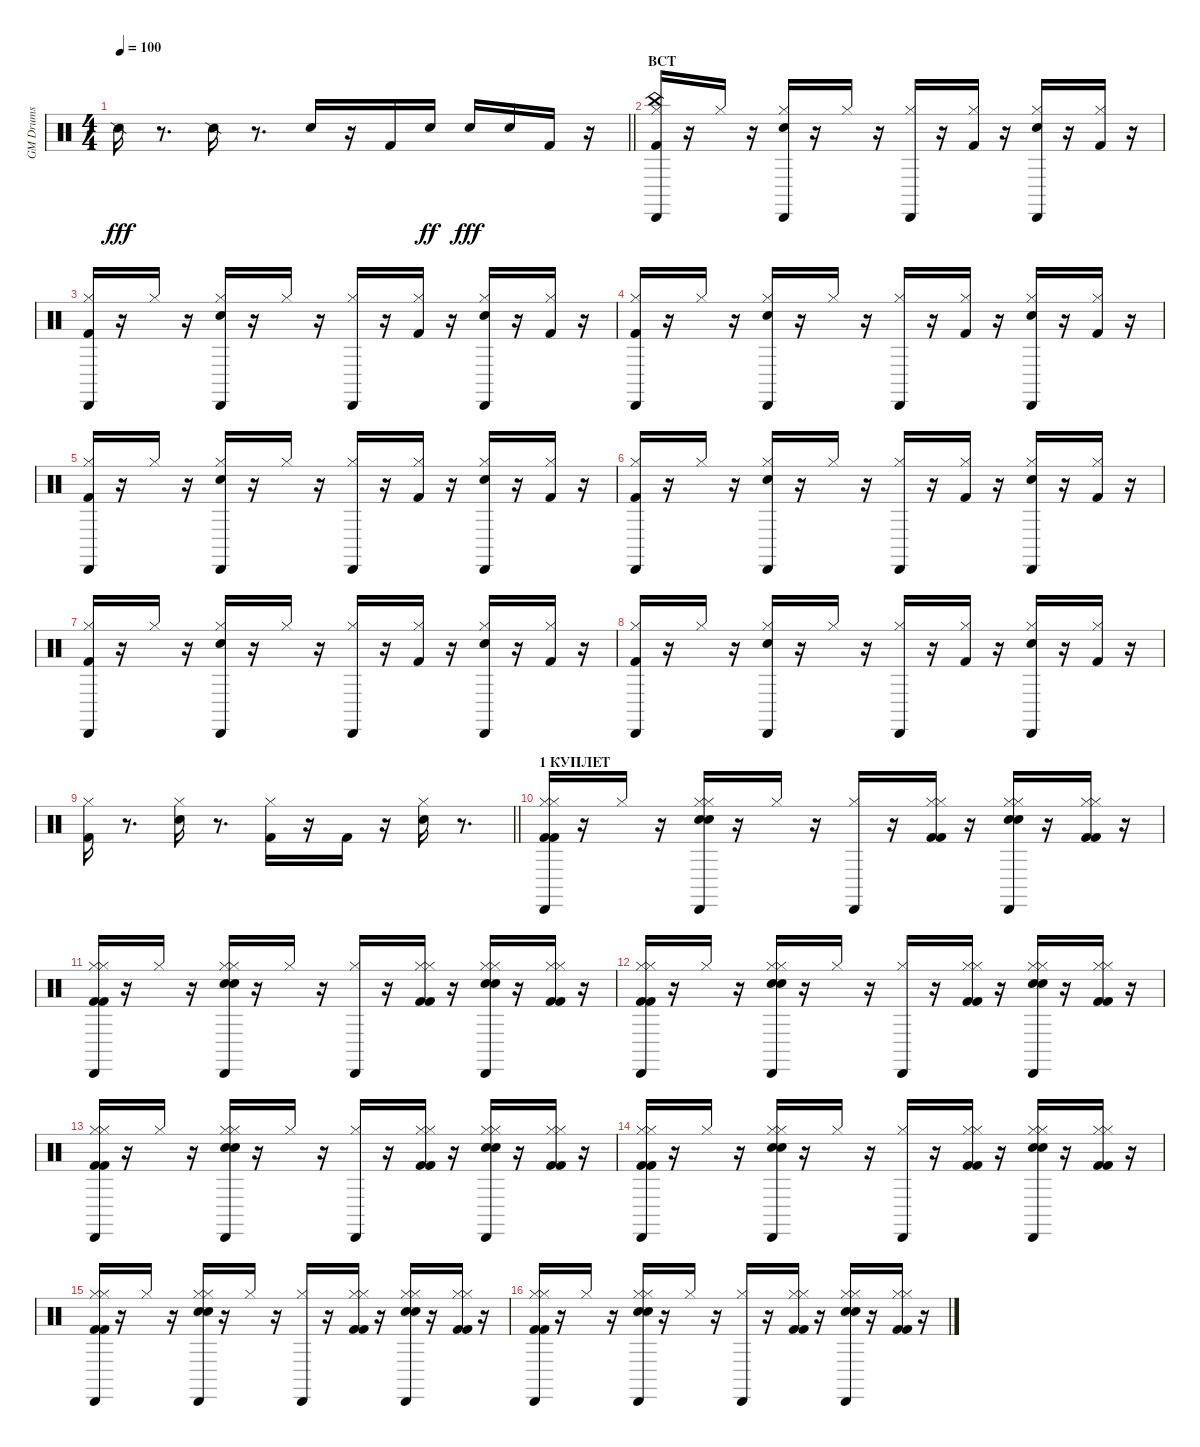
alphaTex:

\track ("GM Drums" "GM Drums") {instrument percussion}
\staff {score}
\articulation defaults
\ts (4 4)
\tempo 100
\clef neutral
\barLineRight lightlight
\ks c "Snare (side stick) 2".16{dy fff}
r.8{d} "Snare (side stick) 2".16 r.8{d} "Snare (hit) 2".16 r.16 "Kick (hit) 2".16 "Snare (hit) 2".16{dy ff} "Snare (hit) 2".16{dy fff} "Snare (hit) 2".16 "Kick (hit) 2".16 r.16 |
\section ("" "ВСТ")
("Kick (hit) 2" "Hi-Hat (closed)" "China (hit)" "Cabasa (hit)").16 r.16 "Hi-Hat (closed)".16 r.16 ("Snare (hit) 2" "Hi-Hat (closed)" "Cabasa (hit)").16 r.16 "Hi-Hat (closed)".16 r.16 ("Hi-Hat (closed)" "Cabasa (hit)").16 r.16 ("Kick (hit) 2" "Hi-Hat (closed)").16 r.16 ("Snare (hit) 2" "Hi-Hat (closed)" "Cabasa (hit)").16 r.16 ("Kick (hit) 2" "Hi-Hat (closed)").16 r.16 |
("Kick (hit) 2" "Hi-Hat (closed)" "Cabasa (hit)").16 r.16 "Hi-Hat (closed)".16 r.16 ("Snare (hit) 2" "Hi-Hat (closed)" "Cabasa (hit)").16 r.16 "Hi-Hat (closed)".16 r.16 ("Hi-Hat (closed)" "Cabasa (hit)").16 r.16 ("Kick (hit) 2" "Hi-Hat (closed)").16 r.16 ("Snare (hit) 2" "Hi-Hat (closed)" "Cabasa (hit)").16 r.16 ("Kick (hit) 2" "Hi-Hat (closed)").16 r.16 |
("Kick (hit) 2" "Hi-Hat (closed)" "Cabasa (hit)").16 r.16 "Hi-Hat (closed)".16 r.16 ("Snare (hit) 2" "Hi-Hat (closed)" "Cabasa (hit)").16 r.16 "Hi-Hat (closed)".16 r.16 ("Hi-Hat (closed)" "Cabasa (hit)").16 r.16 ("Kick (hit) 2" "Hi-Hat (closed)").16 r.16 ("Snare (hit) 2" "Hi-Hat (closed)" "Cabasa (hit)").16 r.16 ("Kick (hit) 2" "Hi-Hat (closed)").16 r.16 |
("Kick (hit) 2" "Hi-Hat (closed)" "Cabasa (hit)").16 r.16 "Hi-Hat (closed)".16 r.16 ("Snare (hit) 2" "Hi-Hat (closed)" "Cabasa (hit)").16 r.16 "Hi-Hat (closed)".16 r.16 ("Hi-Hat (closed)" "Cabasa (hit)").16 r.16 ("Kick (hit) 2" "Hi-Hat (closed)").16 r.16 ("Snare (hit) 2" "Hi-Hat (closed)" "Cabasa (hit)").16 r.16 ("Kick (hit) 2" "Hi-Hat (closed)").16 r.16 |
("Kick (hit) 2" "Hi-Hat (closed)" "Cabasa (hit)").16 r.16 "Hi-Hat (closed)".16 r.16 ("Snare (hit) 2" "Hi-Hat (closed)" "Cabasa (hit)").16 r.16 "Hi-Hat (closed)".16 r.16 ("Hi-Hat (closed)" "Cabasa (hit)").16 r.16 ("Kick (hit) 2" "Hi-Hat (closed)").16 r.16 ("Snare (hit) 2" "Hi-Hat (closed)" "Cabasa (hit)").16 r.16 ("Kick (hit) 2" "Hi-Hat (closed)").16 r.16 |
("Kick (hit) 2" "Hi-Hat (closed)" "Cabasa (hit)").16 r.16 "Hi-Hat (closed)".16 r.16 ("Snare (hit) 2" "Hi-Hat (closed)" "Cabasa (hit)").16 r.16 "Hi-Hat (closed)".16 r.16 ("Hi-Hat (closed)" "Cabasa (hit)").16 r.16 ("Kick (hit) 2" "Hi-Hat (closed)").16 r.16 ("Snare (hit) 2" "Hi-Hat (closed)" "Cabasa (hit)").16 r.16 ("Kick (hit) 2" "Hi-Hat (closed)").16 r.16 |
("Kick (hit) 2" "Hi-Hat (closed)" "Cabasa (hit)").16 r.16 "Hi-Hat (closed)".16 r.16 ("Snare (hit) 2" "Hi-Hat (closed)" "Cabasa (hit)").16 r.16 "Hi-Hat (closed)".16 r.16 ("Hi-Hat (closed)" "Cabasa (hit)").16 r.16 ("Kick (hit) 2" "Hi-Hat (closed)").16 r.16 ("Snare (hit) 2" "Hi-Hat (closed)" "Cabasa (hit)").16 r.16 ("Kick (hit) 2" "Hi-Hat (closed)").16 r.16 |
\barLineRight lightlight
("Kick (hit) 2" "Hi-Hat (closed)").16 r.8{d} ("Snare (hit) 2" "Hi-Hat (closed)").16 r.8{d} ("Kick (hit) 2" "Hi-Hat (closed)").16 r.16 "Kick (hit) 2".16 r.16 ("Snare (hit) 2" "Hi-Hat (closed)").16 r.8{d} |
\section ("" "1 КУПЛЕТ")
("Kick (hit) 2" "Kick (hit) 2" "Hi-Hat (closed)" "Hi-Hat (closed)" "Cabasa (hit)").16 r.16 "Hi-Hat (closed)".16 r.16 ("Snare (hit) 2" "Snare (hit) 2" "Hi-Hat (closed)" "Hi-Hat (closed)" "Cabasa (hit)").16 r.16 "Hi-Hat (closed)".16 r.16 ("Hi-Hat (closed)" "Cabasa (hit)").16 r.16 ("Kick (hit) 2" "Kick (hit) 2" "Hi-Hat (closed)" "Hi-Hat (closed)").16 r.16 ("Snare (hit) 2" "Snare (hit) 2" "Hi-Hat (closed)" "Hi-Hat (closed)" "Cabasa (hit)").16 r.16 ("Kick (hit) 2" "Kick (hit) 2" "Hi-Hat (closed)" "Hi-Hat (closed)").16 r.16 |
("Kick (hit) 2" "Kick (hit) 2" "Hi-Hat (closed)" "Hi-Hat (closed)" "Cabasa (hit)").16 r.16 "Hi-Hat (closed)".16 r.16 ("Snare (hit) 2" "Snare (hit) 2" "Hi-Hat (closed)" "Hi-Hat (closed)" "Cabasa (hit)").16 r.16 "Hi-Hat (closed)".16 r.16 ("Hi-Hat (closed)" "Cabasa (hit)").16 r.16 ("Kick (hit) 2" "Kick (hit) 2" "Hi-Hat (closed)" "Hi-Hat (closed)").16 r.16 ("Snare (hit) 2" "Snare (hit) 2" "Hi-Hat (closed)" "Hi-Hat (closed)" "Cabasa (hit)").16 r.16 ("Kick (hit) 2" "Kick (hit) 2" "Hi-Hat (closed)" "Hi-Hat (closed)").16 r.16 |
("Kick (hit) 2" "Kick (hit) 2" "Hi-Hat (closed)" "Hi-Hat (closed)" "Cabasa (hit)").16 r.16 "Hi-Hat (closed)".16 r.16 ("Snare (hit) 2" "Snare (hit) 2" "Hi-Hat (closed)" "Hi-Hat (closed)" "Cabasa (hit)").16 r.16 "Hi-Hat (closed)".16 r.16 ("Hi-Hat (closed)" "Cabasa (hit)").16 r.16 ("Kick (hit) 2" "Kick (hit) 2" "Hi-Hat (closed)" "Hi-Hat (closed)").16 r.16 ("Snare (hit) 2" "Snare (hit) 2" "Hi-Hat (closed)" "Hi-Hat (closed)" "Cabasa (hit)").16 r.16 ("Kick (hit) 2" "Kick (hit) 2" "Hi-Hat (closed)" "Hi-Hat (closed)").16 r.16 |
("Kick (hit) 2" "Kick (hit) 2" "Hi-Hat (closed)" "Hi-Hat (closed)" "Cabasa (hit)").16 r.16 "Hi-Hat (closed)".16 r.16 ("Snare (hit) 2" "Snare (hit) 2" "Hi-Hat (closed)" "Hi-Hat (closed)" "Cabasa (hit)").16 r.16 "Hi-Hat (closed)".16 r.16 ("Hi-Hat (closed)" "Cabasa (hit)").16 r.16 ("Kick (hit) 2" "Kick (hit) 2" "Hi-Hat (closed)" "Hi-Hat (closed)").16 r.16 ("Snare (hit) 2" "Snare (hit) 2" "Hi-Hat (closed)" "Hi-Hat (closed)" "Cabasa (hit)").16 r.16 ("Kick (hit) 2" "Kick (hit) 2" "Hi-Hat (closed)" "Hi-Hat (closed)").16 r.16 |
("Kick (hit) 2" "Kick (hit) 2" "Hi-Hat (closed)" "Hi-Hat (closed)" "Cabasa (hit)").16 r.16 "Hi-Hat (closed)".16 r.16 ("Snare (hit) 2" "Snare (hit) 2" "Hi-Hat (closed)" "Hi-Hat (closed)" "Cabasa (hit)").16 r.16 "Hi-Hat (closed)".16 r.16 ("Hi-Hat (closed)" "Cabasa (hit)").16 r.16 ("Kick (hit) 2" "Kick (hit) 2" "Hi-Hat (closed)" "Hi-Hat (closed)").16 r.16 ("Snare (hit) 2" "Snare (hit) 2" "Hi-Hat (closed)" "Hi-Hat (closed)" "Cabasa (hit)").16 r.16 ("Kick (hit) 2" "Kick (hit) 2" "Hi-Hat (closed)" "Hi-Hat (closed)").16 r.16 |
("Kick (hit) 2" "Kick (hit) 2" "Hi-Hat (closed)" "Hi-Hat (closed)" "Cabasa (hit)").16 r.16 "Hi-Hat (closed)".16 r.16 ("Snare (hit) 2" "Snare (hit) 2" "Hi-Hat (closed)" "Hi-Hat (closed)" "Cabasa (hit)").16 r.16 "Hi-Hat (closed)".16 r.16 ("Hi-Hat (closed)" "Cabasa (hit)").16 r.16 ("Kick (hit) 2" "Kick (hit) 2" "Hi-Hat (closed)" "Hi-Hat (closed)").16 r.16 ("Snare (hit) 2" "Snare (hit) 2" "Hi-Hat (closed)" "Hi-Hat (closed)" "Cabasa (hit)").16 r.16 ("Kick (hit) 2" "Kick (hit) 2" "Hi-Hat (closed)" "Hi-Hat (closed)").16 r.16 |
("Kick (hit) 2" "Kick (hit) 2" "Hi-Hat (closed)" "Hi-Hat (closed)" "Cabasa (hit)").16 r.16 "Hi-Hat (closed)".16 r.16 ("Snare (hit) 2" "Snare (hit) 2" "Hi-Hat (closed)" "Hi-Hat (closed)" "Cabasa (hit)").16 r.16 "Hi-Hat (closed)".16 r.16 ("Hi-Hat (closed)" "Cabasa (hit)").16 r.16 ("Kick (hit) 2" "Kick (hit) 2" "Hi-Hat (closed)" "Hi-Hat (closed)").16 r.16 ("Snare (hit) 2" "Snare (hit) 2" "Hi-Hat (closed)" "Hi-Hat (closed)" "Cabasa (hit)").16 r.16 ("Kick (hit) 2" "Kick (hit) 2" "Hi-Hat (closed)" "Hi-Hat (closed)").16 r.16
